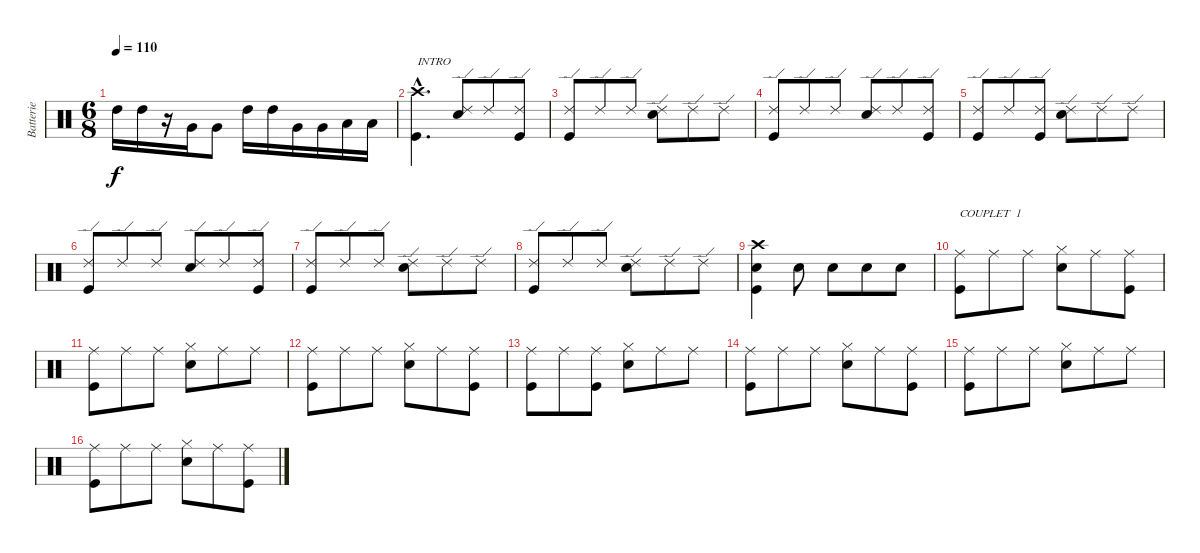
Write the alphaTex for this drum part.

\track ("Batterie" "Batterie") {instrument percussion}
\staff {score}
\articulation defaults
\ts (6 8)
\tempo 110
\clef neutral
\ks c "High Tom (hit)".16{dy f} "High Tom (hit)".16
r.16 "Very Low Tom (hit)".16 "Very Low Tom (hit)".8 "High Tom (hit)".16 "High Tom (hit)".16 "Very Low Tom (hit)".16 "Very Low Tom (hit)".16 "Low Floor Tom (hit)".16 "Low Floor Tom (hit)".16 |
("Crash high (hit)"{hac} "Kick (hit)"{hac}).4{d txt "INTRO"} ("Ride (edge) 2" "Snare (hit) 2").8 "Ride (edge) 2".8 ("Ride (edge) 2" "Kick (hit)").8 |
("Ride (edge) 2" "Kick (hit)").8 "Ride (edge) 2".8 "Ride (edge) 2".8 ("Ride (edge) 2" "Snare (hit) 2").8 "Ride (edge) 2".8 "Ride (edge) 2".8 |
("Ride (edge) 2" "Kick (hit)").8 "Ride (edge) 2".8 "Ride (edge) 2".8 ("Ride (edge) 2" "Snare (hit) 2").8 "Ride (edge) 2".8 ("Ride (edge) 2" "Kick (hit)").8 |
("Ride (edge) 2" "Kick (hit)").8 "Ride (edge) 2".8 ("Ride (edge) 2" "Kick (hit)").8 ("Ride (edge) 2" "Snare (hit) 2").8 "Ride (edge) 2".8 "Ride (edge) 2".8 |
("Ride (edge) 2" "Kick (hit)").8 "Ride (edge) 2".8 "Ride (edge) 2".8 ("Ride (edge) 2" "Snare (hit) 2").8 "Ride (edge) 2".8 ("Ride (edge) 2" "Kick (hit)").8 |
("Ride (edge) 2" "Kick (hit)").8 "Ride (edge) 2".8 "Ride (edge) 2".8 ("Ride (edge) 2" "Snare (hit) 2").8 "Ride (edge) 2".8 "Ride (edge) 2".8 |
("Ride (edge) 2" "Kick (hit)").8 "Ride (edge) 2".8 "Ride (edge) 2".8 ("Ride (edge) 2" "Snare (hit) 2").8 "Ride (edge) 2".8 "Ride (edge) 2".8 |
("Crash high (hit)" "Snare (hit) 2" "Kick (hit)").4 "Snare (hit) 2".8 "Snare (hit) 2".8 "Snare (hit) 2".8 "Snare (hit) 2".8 |
("Ride (middle)" "Kick (hit)").8{txt "COUPLET  1"} "Ride (middle)".8 "Ride (middle)".8 ("Hi-Hat (closed)" "Snare (hit) 2").8 "Ride (middle)".8 ("Ride (middle)" "Kick (hit)").8 |
("Ride (middle)" "Kick (hit)").8 "Ride (middle)".8 "Ride (middle)".8 ("Hi-Hat (closed)" "Snare (hit) 2").8 "Ride (middle)".8 "Ride (middle)".8 |
("Ride (middle)" "Kick (hit)").8 "Ride (middle)".8 "Ride (middle)".8 ("Hi-Hat (closed)" "Snare (hit) 2").8 "Ride (middle)".8 ("Ride (middle)" "Kick (hit)").8 |
("Ride (middle)" "Kick (hit)").8 "Ride (middle)".8 ("Ride (middle)" "Kick (hit)").8 ("Hi-Hat (closed)" "Snare (hit) 2").8 "Ride (middle)".8 "Ride (middle)".8 |
("Ride (middle)" "Kick (hit)").8 "Ride (middle)".8 "Ride (middle)".8 ("Hi-Hat (closed)" "Snare (hit) 2").8 "Ride (middle)".8 ("Ride (middle)" "Kick (hit)").8 |
("Ride (middle)" "Kick (hit)").8 "Ride (middle)".8 "Ride (middle)".8 ("Hi-Hat (closed)" "Snare (hit) 2").8 "Ride (middle)".8 "Ride (middle)".8 |
("Ride (middle)" "Kick (hit)").8 "Ride (middle)".8 "Ride (middle)".8 ("Hi-Hat (closed)" "Snare (hit) 2").8 "Ride (middle)".8 ("Ride (middle)" "Kick (hit)").8
